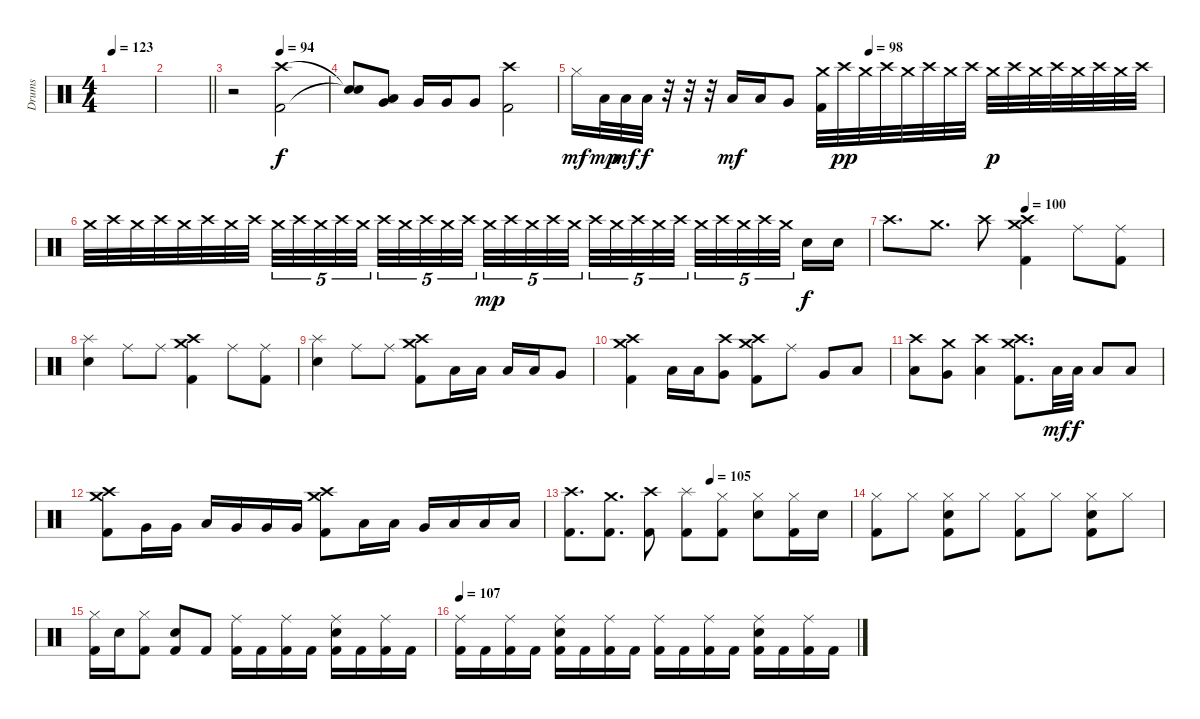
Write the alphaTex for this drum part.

\track ("Drums" "Drums") {instrument percussion}
\staff {score}
\articulation defaults
\ts (4 4)
\tempo 123
\clef neutral
\ks c
|
\barLineRight lightlight
|
\section ("" "")
\tempo (94 0.5)
r.2 ("Crash high (hit)" "Kick (hit) 2").2 |
("Snare (hit)"{t} "Snare (hit)"{t}).8 ("Very Low Tom (hit)" "Low Tom (hit)").8 "Very Low Tom (hit)".16 "Very Low Tom (hit)".16 "Very Low Tom (hit)".8 ("Crash high (hit)" "Kick (hit) 2").2 |
\tempo (98 0.5)
"Hi-Hat (closed)".16{dy mf} "Low Tom (hit)".32{dy mp} "Low Tom (hit)".32{dy mf} "Low Tom (hit)".32{dy f} r.32 r.32 r.32 "Low Tom (hit)".16{dy mf} "Low Tom (hit)".16 "Very Low Tom (hit)".8 ("Crash medium (hit)" "Kick (hit) 2").32 "Crash high (hit)".32{dy pp} "Crash medium (hit)".32 "Crash high (hit)".32 "Crash medium (hit)".32 "Crash high (hit)".32 "Crash medium (hit)".32 "Crash high (hit)".32 "Crash medium (hit)".32{dy p} "Crash high (hit)".32 "Crash medium (hit)".32 "Crash high (hit)".32 "Crash medium (hit)".32 "Crash high (hit)".32 "Crash medium (hit)".32 "Crash high (hit)".32 |
"Crash medium (hit)".32 "Crash high (hit)".32 "Crash medium (hit)".32 "Crash high (hit)".32 "Crash medium (hit)".32 "Crash high (hit)".32 "Crash medium (hit)".32 "Crash high (hit)".32 "Crash medium (hit)".32{tu (5 4)} "Crash high (hit)".32{tu (5 4)} "Crash medium (hit)".32{tu (5 4)} "Crash high (hit)".32{tu (5 4)} "Crash medium (hit)".32{tu (5 4) beam splitsecondary} "Crash high (hit)".32{tu (5 4)} "Crash medium (hit)".32{tu (5 4)} "Crash high (hit)".32{tu (5 4)} "Crash medium (hit)".32{tu (5 4)} "Crash high (hit)".32{tu (5 4)} "Crash medium (hit)".32{tu (5 4) dy mp} "Crash high (hit)".32{tu (5 4)} "Crash medium (hit)".32{tu (5 4)} "Crash high (hit)".32{tu (5 4)} "Crash medium (hit)".32{tu (5 4) beam splitsecondary} "Crash high (hit)".32{tu (5 4)} "Crash medium (hit)".32{tu (5 4)} "Crash high (hit)".32{tu (5 4)} "Crash medium (hit)".32{tu (5 4)} "Crash high (hit)".32{tu (5 4)} "Crash medium (hit)".32{tu (5 4)} "Crash high (hit)".32{tu (5 4)} "Crash medium (hit)".32{tu (5 4)} "Crash high (hit)".32{tu (5 4)} "Crash medium (hit)".32{tu (5 4) beam splitsecondary} "Snare (hit) 2".16{dy f} "Snare (hit) 2".16 |
\tempo (100 0.5)
"Crash high (hit)".8{d} "Crash medium (hit)".8{d} "Crash high (hit)".8 ("Crash medium (hit)" "Crash high (hit)" "Kick (hit) 2").4 "Ride (middle)".8 ("Ride (middle)" "Kick (hit) 2").8 |
("Splash (hit)" "Snare (hit) 2").4 "Ride (middle)".8 "Ride (middle)".8 ("Crash medium (hit)" "Crash high (hit)" "Kick (hit) 2").4 "Ride (middle)".8 ("Ride (middle)" "Kick (hit) 2").8 |
("Splash (hit)" "Snare (hit) 2").4 "Ride (middle)".8 "Ride (middle)".8 ("Crash medium (hit)" "Crash high (hit)" "Kick (hit) 2").8 "Low Tom (hit)".16 "Low Tom (hit)".16 "Low Tom (hit)".16 "Low Tom (hit)".16 "Very Low Tom (hit)".8 |
("Crash medium (hit)" "Crash high (hit)" "Kick (hit) 2").4 "Low Tom (hit)".16 "Low Tom (hit)".16 ("Crash high (hit)" "Very Low Tom (hit)").8 ("Crash medium (hit)" "Crash high (hit)" "Kick (hit) 2").8 "Ride (middle)".8 "Very Low Tom (hit)".8 "Low Tom (hit)".8 |
("Crash high (hit)" "Low Tom (hit)").8 ("Crash medium (hit)" "Very Low Tom (hit)").8 ("Crash high (hit)" "Low Tom (hit)").4 ("Crash medium (hit)" "Crash high (hit)" "Kick (hit) 2").8{d} "Low Tom (hit)".32{dy mf} "Low Tom (hit)".32{dy f} "Low Tom (hit)".8 "Low Tom (hit)".8 |
("Crash medium (hit)" "Crash high (hit)" "Kick (hit) 2").8 "Very Low Tom (hit)".16 "Very Low Tom (hit)".16 "Low Tom (hit)".16 "Very Low Tom (hit)".16 "Very Low Tom (hit)".16 "Very Low Tom (hit)".16 ("Crash medium (hit)" "Crash high (hit)" "Kick (hit) 2").8 "Low Floor Tom (hit)".16 "Low Floor Tom (hit)".16 "Very Low Tom (hit)".16 "Low Floor Tom (hit)".16 "Low Floor Tom (hit)".16 "Low Floor Tom (hit)".16 |
\tempo (105 0.5)
("Crash high (hit)" "Kick (hit) 2").8{d} ("Crash medium (hit)" "Kick (hit) 2").8{d} ("Crash high (hit)" "Kick (hit) 2").8 ("Splash (hit)" "Kick (hit) 2").8 ("Hi-Hat (closed)" "Kick (hit) 2").8 ("Hi-Hat (closed)" "Snare (hit) 2").8 ("Hi-Hat (closed)" "Kick (hit) 2").16 "Snare (hit) 2".16 |
("Hi-Hat (closed)" "Kick (hit) 2").8 "Hi-Hat (closed)".8 ("Hi-Hat (closed)" "Snare (hit) 2" "Kick (hit) 2").8 "Hi-Hat (closed)".8 ("Hi-Hat (closed)" "Kick (hit) 2").8 "Hi-Hat (closed)".8 ("Hi-Hat (closed)" "Snare (hit) 2" "Kick (hit) 2").8 "Hi-Hat (closed)".8 |
("Hi-Hat (closed)" "Kick (hit) 2").16 "Snare (hit) 2".16 ("Hi-Hat (closed)" "Kick (hit) 2").8 ("Snare (hit) 2" "Kick (hit) 2").8 "Kick (hit) 2".8 ("Ride (middle)" "Kick (hit) 2").16 "Kick (hit) 2".16 ("Ride (middle)" "Kick (hit) 2").16 "Kick (hit) 2".16 ("Ride (middle)" "Snare (hit) 2" "Kick (hit) 2").16 "Kick (hit) 2".16 ("Ride (middle)" "Kick (hit) 2").16 "Kick (hit) 2".16 |
\tempo 107
("Ride (middle)" "Kick (hit) 2").16 "Kick (hit) 2".16 ("Ride (middle)" "Kick (hit) 2").16 "Kick (hit) 2".16 ("Ride (middle)" "Snare (hit) 2" "Kick (hit) 2").16 "Kick (hit) 2".16 ("Ride (middle)" "Kick (hit) 2").16 "Kick (hit) 2".16 ("Ride (middle)" "Kick (hit) 2").16 "Kick (hit) 2".16 ("Ride (middle)" "Kick (hit) 2").16 "Kick (hit) 2".16 ("Ride (middle)" "Snare (hit) 2" "Kick (hit) 2").16 "Kick (hit) 2".16 ("Ride (middle)" "Kick (hit) 2").16 "Kick (hit) 2".16
